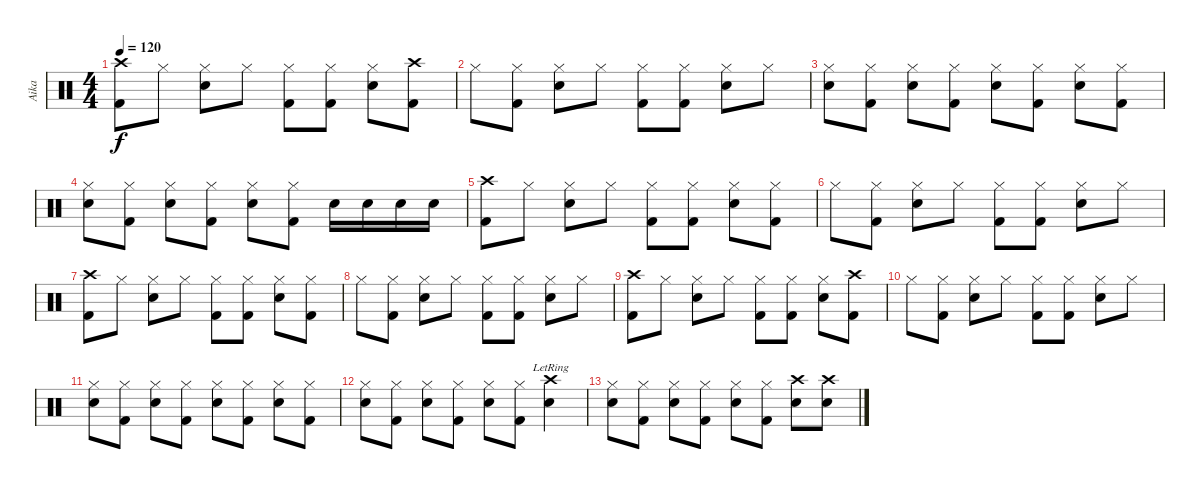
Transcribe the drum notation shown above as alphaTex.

\track ("Aika" "Aika") {instrument percussion}
\staff {score}
\articulation defaults
\ts (4 4)
\tempo 120
\clef neutral
\ks c
("Crash high (hit)" "Kick (hit) 2").8{dy f} "Hi-Hat (closed)".8 ("Hi-Hat (closed)" "Snare (hit) 2").8 "Hi-Hat (closed)".8 ("Hi-Hat (closed)" "Kick (hit) 2").8 ("Hi-Hat (closed)" "Kick (hit) 2").8 ("Hi-Hat (closed)" "Snare (hit) 2").8 ("Crash high (hit)" "Kick (hit) 2").8 |
"Hi-Hat (closed)".8 ("Hi-Hat (closed)" "Kick (hit) 2").8 ("Hi-Hat (closed)" "Snare (hit) 2").8 "Hi-Hat (closed)".8 ("Hi-Hat (closed)" "Kick (hit) 2").8 ("Hi-Hat (closed)" "Kick (hit) 2").8 ("Hi-Hat (closed)" "Snare (hit) 2").8 "Hi-Hat (closed)".8 |
("Hi-Hat (closed)" "Snare (hit) 2").8 ("Hi-Hat (closed)" "Kick (hit) 2").8 ("Hi-Hat (closed)" "Snare (hit) 2").8 ("Hi-Hat (closed)" "Kick (hit) 2").8 ("Hi-Hat (closed)" "Snare (hit) 2").8 ("Hi-Hat (closed)" "Kick (hit) 2").8 ("Hi-Hat (closed)" "Snare (hit) 2").8 ("Hi-Hat (closed)" "Kick (hit) 2").8 |
("Hi-Hat (closed)" "Snare (hit) 2").8 ("Hi-Hat (closed)" "Kick (hit) 2").8 ("Hi-Hat (closed)" "Snare (hit) 2").8 ("Hi-Hat (closed)" "Kick (hit) 2").8 ("Hi-Hat (closed)" "Snare (hit) 2").8 ("Hi-Hat (closed)" "Kick (hit) 2").8 "Snare (hit) 2".16 "Snare (hit) 2".16 "Snare (hit) 2".16 "Snare (hit) 2".16 |
("Crash high (hit)" "Kick (hit) 2").8 "Hi-Hat (closed)".8 ("Hi-Hat (closed)" "Snare (hit) 2").8 "Hi-Hat (closed)".8 ("Hi-Hat (closed)" "Kick (hit) 2").8 ("Hi-Hat (closed)" "Kick (hit) 2").8 ("Hi-Hat (closed)" "Snare (hit) 2").8 ("Hi-Hat (closed)" "Kick (hit) 2").8 |
"Hi-Hat (closed)".8 ("Hi-Hat (closed)" "Kick (hit) 2").8 ("Hi-Hat (closed)" "Snare (hit) 2").8 "Hi-Hat (closed)".8 ("Hi-Hat (closed)" "Kick (hit) 2").8 ("Hi-Hat (closed)" "Kick (hit) 2").8 ("Hi-Hat (closed)" "Snare (hit) 2").8 "Hi-Hat (closed)".8 |
("Crash high (hit)" "Kick (hit) 2").8 "Hi-Hat (closed)".8 ("Hi-Hat (closed)" "Snare (hit) 2").8 "Hi-Hat (closed)".8 ("Hi-Hat (closed)" "Kick (hit) 2").8 ("Hi-Hat (closed)" "Kick (hit) 2").8 ("Hi-Hat (closed)" "Snare (hit) 2").8 ("Hi-Hat (closed)" "Kick (hit) 2").8 |
"Hi-Hat (closed)".8 ("Hi-Hat (closed)" "Kick (hit) 2").8 ("Hi-Hat (closed)" "Snare (hit) 2").8 "Hi-Hat (closed)".8 ("Hi-Hat (closed)" "Kick (hit) 2").8 ("Hi-Hat (closed)" "Kick (hit) 2").8 ("Hi-Hat (closed)" "Snare (hit) 2").8 "Hi-Hat (closed)".8 |
("Crash high (hit)" "Kick (hit) 2").8 "Hi-Hat (closed)".8 ("Hi-Hat (closed)" "Snare (hit) 2").8 "Hi-Hat (closed)".8 ("Hi-Hat (closed)" "Kick (hit) 2").8 ("Hi-Hat (closed)" "Kick (hit) 2").8 ("Hi-Hat (closed)" "Snare (hit) 2").8 ("Crash high (hit)" "Kick (hit) 2").8 |
"Hi-Hat (closed)".8 ("Hi-Hat (closed)" "Kick (hit) 2").8 ("Hi-Hat (closed)" "Snare (hit) 2").8 "Hi-Hat (closed)".8 ("Hi-Hat (closed)" "Kick (hit) 2").8 ("Hi-Hat (closed)" "Kick (hit) 2").8 ("Hi-Hat (closed)" "Snare (hit) 2").8 "Hi-Hat (closed)".8 |
("Hi-Hat (closed)" "Snare (hit) 2").8 ("Hi-Hat (closed)" "Kick (hit) 2").8 ("Hi-Hat (closed)" "Snare (hit) 2").8 ("Hi-Hat (closed)" "Kick (hit) 2").8 ("Hi-Hat (closed)" "Snare (hit) 2").8 ("Hi-Hat (closed)" "Kick (hit) 2").8 ("Hi-Hat (closed)" "Snare (hit) 2").8 ("Hi-Hat (closed)" "Kick (hit) 2").8 |
("Hi-Hat (closed)" "Snare (hit) 2").8 ("Hi-Hat (closed)" "Kick (hit) 2").8 ("Hi-Hat (closed)" "Snare (hit) 2").8 ("Hi-Hat (closed)" "Kick (hit) 2").8 ("Hi-Hat (closed)" "Snare (hit) 2").8 ("Hi-Hat (closed)" "Kick (hit) 2").8 ("Crash high (hit)" "Snare (hit) 2"{lr}).4 |
("Hi-Hat (closed)" "Snare (hit) 2").8 ("Hi-Hat (closed)" "Kick (hit) 2").8 ("Hi-Hat (closed)" "Snare (hit) 2").8 ("Hi-Hat (closed)" "Kick (hit) 2").8 ("Hi-Hat (closed)" "Snare (hit) 2").8 ("Hi-Hat (closed)" "Kick (hit) 2").8 ("Crash high (hit)" "Snare (hit) 2").8 ("Crash high (hit)" "Snare (hit) 2").8
